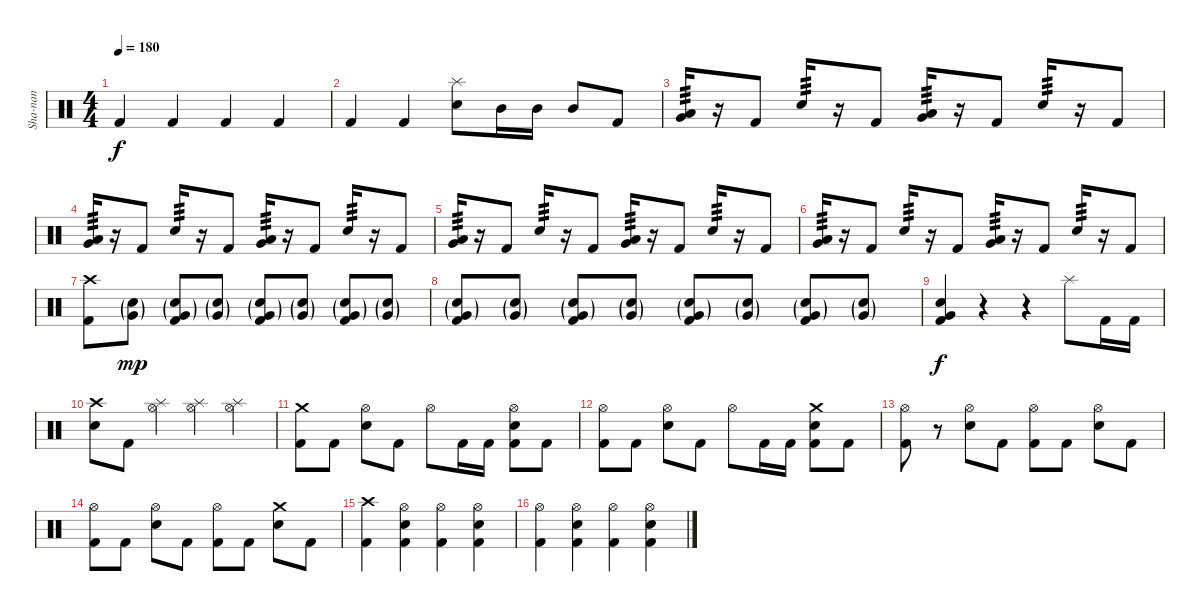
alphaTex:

\track ("Sha-nan" "Sha-nan") {instrument percussion}
\staff {score}
\articulation defaults
\ts (4 4)
\tempo 180
\clef neutral
\ks c "Kick (hit) 2".4{dy f} "Kick (hit) 2".4 "Kick (hit) 2".4 "Kick (hit) 2".4
|
"Kick (hit) 2".4 "Kick (hit) 2".4 ("Splash (hit)" "Snare (hit) 2").8 "Mid Tom (hit)".16 "Mid Tom (hit)".16 "Mid Tom (hit)".8 "Kick (hit) 2".8 |
("Low Tom (hit)" "Very Low Tom (hit)").16{tp 3} r.16 "Kick (hit) 2".8 "Snare (hit) 2".16{tp 3} r.16 "Kick (hit) 2".8 ("Low Tom (hit)" "Very Low Tom (hit)").16{tp 3} r.16 "Kick (hit) 2".8 "Snare (hit) 2".16{tp 3} r.16 "Kick (hit) 2".8 |
("Low Tom (hit)" "Very Low Tom (hit)").16{tp 3} r.16 "Kick (hit) 2".8 "Snare (hit) 2".16{tp 3} r.16 "Kick (hit) 2".8 ("Low Tom (hit)" "Very Low Tom (hit)").16{tp 3} r.16 "Kick (hit) 2".8 "Snare (hit) 2".16{tp 3} r.16 "Kick (hit) 2".8 |
("Low Tom (hit)" "Very Low Tom (hit)").16{tp 3} r.16 "Kick (hit) 2".8 "Snare (hit) 2".16{tp 3} r.16 "Kick (hit) 2".8 ("Low Tom (hit)" "Very Low Tom (hit)").16{tp 3} r.16 "Kick (hit) 2".8 "Snare (hit) 2".16{tp 3} r.16 "Kick (hit) 2".8 |
("Low Tom (hit)" "Very Low Tom (hit)").16{tp 3} r.16 "Kick (hit) 2".8 "Snare (hit) 2".16{tp 3} r.16 "Kick (hit) 2".8 ("Low Tom (hit)" "Very Low Tom (hit)").16{tp 3} r.16 "Kick (hit) 2".8 "Snare (hit) 2".16{tp 3} r.16 "Kick (hit) 2".8 |
("Crash high (hit)" "Kick (hit) 2").8 ("Very Low Tom (hit)"{g} "Snare (hit) 2"{g}).8{dy mp} ("Very Low Tom (hit)"{g} "Snare (hit) 2"{g} "Kick (hit) 2").8 ("Very Low Tom (hit)"{g} "Snare (hit) 2"{g}).8 ("Very Low Tom (hit)"{g} "Snare (hit) 2"{g} "Kick (hit) 2").8 ("Very Low Tom (hit)"{g} "Snare (hit) 2"{g}).8 ("Very Low Tom (hit)"{g} "Snare (hit) 2"{g} "Kick (hit) 2").8 ("Very Low Tom (hit)"{g} "Snare (hit) 2"{g}).8 |
("Very Low Tom (hit)"{g} "Snare (hit) 2"{g} "Kick (hit) 2").8 ("Very Low Tom (hit)"{g} "Snare (hit) 2"{g}).8 ("Very Low Tom (hit)"{g} "Snare (hit) 2"{g} "Kick (hit) 2").8 ("Very Low Tom (hit)"{g} "Snare (hit) 2"{g}).8 ("Very Low Tom (hit)"{g} "Snare (hit) 2"{g} "Kick (hit) 2").8 ("Very Low Tom (hit)"{g} "Snare (hit) 2"{g}).8 ("Very Low Tom (hit)"{g} "Snare (hit) 2"{g} "Kick (hit) 2").8 ("Very Low Tom (hit)"{g} "Snare (hit) 2"{g}).8 |
("Very Low Tom (hit)" "Snare (hit) 2" "Kick (hit) 2").4{dy f} r.4 r.4 "Splash (hit)".8 "Kick (hit) 2".16 "Kick (hit) 2".16 |
("Crash high (hit)" "Snare (hit) 2").8 "Kick (hit) 2".8 ("Splash (hit)" "Hi-Hat (open)").4 ("Splash (hit)" "Hi-Hat (open)").4 ("Splash (hit)" "Hi-Hat (open)").4 |
("Crash medium (hit)" "Kick (hit) 2").8 "Kick (hit) 2".8 ("Hi-Hat (open)" "Snare (hit) 2").8 "Kick (hit) 2".8 "Hi-Hat (open)".8 "Kick (hit) 2".16 "Kick (hit) 2".16 ("Hi-Hat (open)" "Snare (hit) 2" "Kick (hit) 2").8 "Kick (hit) 2".8 |
("Hi-Hat (open)" "Kick (hit) 2").8 "Kick (hit) 2".8 ("Hi-Hat (open)" "Snare (hit) 2").8 "Kick (hit) 2".8 "Hi-Hat (open)".8 "Kick (hit) 2".16 "Kick (hit) 2".16 ("Crash medium (hit)" "Snare (hit) 2" "Kick (hit) 2").8 "Kick (hit) 2".8 |
("Hi-Hat (open)" "Kick (hit) 2").8 r.8 ("Hi-Hat (open)" "Snare (hit) 2").8 "Kick (hit) 2".8 ("Hi-Hat (open)" "Kick (hit) 2").8 "Kick (hit) 2".8 ("Hi-Hat (open)" "Snare (hit) 2").8 "Kick (hit) 2".8 |
("Hi-Hat (open)" "Kick (hit) 2").8 "Kick (hit) 2".8 ("Hi-Hat (open)" "Snare (hit) 2").8 "Kick (hit) 2".8 ("Hi-Hat (open)" "Kick (hit) 2").8 "Kick (hit) 2".8 ("Crash medium (hit)" "Snare (hit) 2").8 "Kick (hit) 2".8 |
("Crash high (hit)" "Kick (hit) 2").4 ("Hi-Hat (open)" "Snare (hit) 2" "Kick (hit) 2").4 ("Hi-Hat (open)" "Kick (hit) 2").4 ("Hi-Hat (open)" "Snare (hit) 2" "Kick (hit) 2").4 |
("Hi-Hat (open)" "Kick (hit) 2").4 ("Hi-Hat (open)" "Snare (hit) 2" "Kick (hit) 2").4 ("Hi-Hat (open)" "Kick (hit) 2").4 ("Hi-Hat (open)" "Snare (hit) 2" "Kick (hit) 2").4
